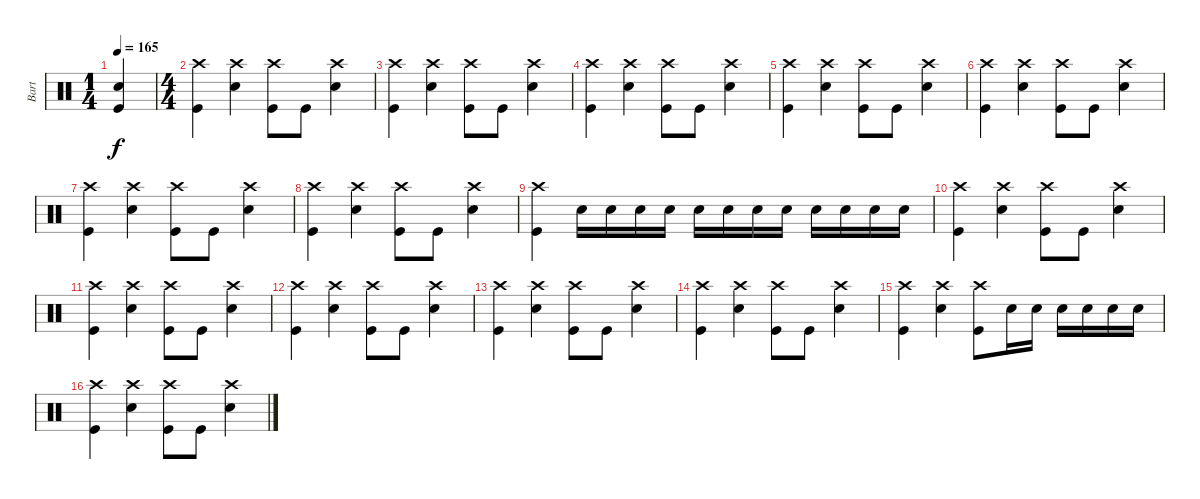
\track ("Bart" "Bart") {instrument percussion}
\staff {score}
\articulation defaults
\ts (1 4)
\tempo 165
\clef neutral
\ks c
("Kick (hit)" "Electric Snare (hit)").4{dy f} |
\ts (4 4)
("Kick (hit)" "Crash high (hit)").4 ("Electric Snare (hit)" "Crash high (hit)").4 ("Kick (hit)" "Crash high (hit)").8 "Kick (hit)".8 ("Electric Snare (hit)" "Crash high (hit)").4 |
("Kick (hit)" "Crash high (hit)").4 ("Electric Snare (hit)" "Crash high (hit)").4 ("Kick (hit)" "Crash high (hit)").8 "Kick (hit)".8 ("Electric Snare (hit)" "Crash high (hit)").4 |
("Kick (hit)" "Crash high (hit)").4 ("Electric Snare (hit)" "Crash high (hit)").4 ("Kick (hit)" "Crash high (hit)").8 "Kick (hit)".8 ("Electric Snare (hit)" "Crash high (hit)").4 |
("Kick (hit)" "Crash high (hit)").4 ("Electric Snare (hit)" "Crash high (hit)").4 ("Kick (hit)" "Crash high (hit)").8 "Kick (hit)".8 ("Electric Snare (hit)" "Crash high (hit)").4 |
("Kick (hit)" "Crash high (hit)").4 ("Electric Snare (hit)" "Crash high (hit)").4 ("Kick (hit)" "Crash high (hit)").8 "Kick (hit)".8 ("Electric Snare (hit)" "Crash high (hit)").4 |
("Kick (hit)" "Crash high (hit)").4 ("Electric Snare (hit)" "Crash high (hit)").4 ("Kick (hit)" "Crash high (hit)").8 "Kick (hit)".8 ("Electric Snare (hit)" "Crash high (hit)").4 |
("Kick (hit)" "Crash high (hit)").4 ("Electric Snare (hit)" "Crash high (hit)").4 ("Kick (hit)" "Crash high (hit)").8 "Kick (hit)".8 ("Electric Snare (hit)" "Crash high (hit)").4 |
("Kick (hit)" "Crash high (hit)").4 "Electric Snare (hit)".16 "Electric Snare (hit)".16 "Electric Snare (hit)".16 "Electric Snare (hit)".16 "Electric Snare (hit)".16 "Electric Snare (hit)".16 "Electric Snare (hit)".16 "Electric Snare (hit)".16 "Electric Snare (hit)".16 "Electric Snare (hit)".16 "Electric Snare (hit)".16 "Electric Snare (hit)".16 |
("Kick (hit)" "Crash high (hit)").4 ("Electric Snare (hit)" "Crash high (hit)").4 ("Kick (hit)" "Crash high (hit)").8 "Kick (hit)".8 ("Electric Snare (hit)" "Crash high (hit)").4 |
("Kick (hit)" "Crash high (hit)").4 ("Electric Snare (hit)" "Crash high (hit)").4 ("Kick (hit)" "Crash high (hit)").8 "Kick (hit)".8 ("Electric Snare (hit)" "Crash high (hit)").4 |
("Kick (hit)" "Crash high (hit)").4 ("Electric Snare (hit)" "Crash high (hit)").4 ("Kick (hit)" "Crash high (hit)").8 "Kick (hit)".8 ("Electric Snare (hit)" "Crash high (hit)").4 |
("Kick (hit)" "Crash high (hit)").4 ("Electric Snare (hit)" "Crash high (hit)").4 ("Kick (hit)" "Crash high (hit)").8 "Kick (hit)".8 ("Electric Snare (hit)" "Crash high (hit)").4 |
("Kick (hit)" "Crash high (hit)").4 ("Electric Snare (hit)" "Crash high (hit)").4 ("Kick (hit)" "Crash high (hit)").8 "Kick (hit)".8 ("Electric Snare (hit)" "Crash high (hit)").4 |
("Kick (hit)" "Crash high (hit)").4 ("Electric Snare (hit)" "Crash high (hit)").4 ("Kick (hit)" "Crash high (hit)").8 "Electric Snare (hit)".16 "Electric Snare (hit)".16 "Electric Snare (hit)".16 "Electric Snare (hit)".16 "Electric Snare (hit)".16 "Electric Snare (hit)".16 |
("Kick (hit)" "Crash high (hit)").4 ("Electric Snare (hit)" "Crash high (hit)").4 ("Kick (hit)" "Crash high (hit)").8 "Kick (hit)".8 ("Electric Snare (hit)" "Crash high (hit)").4
